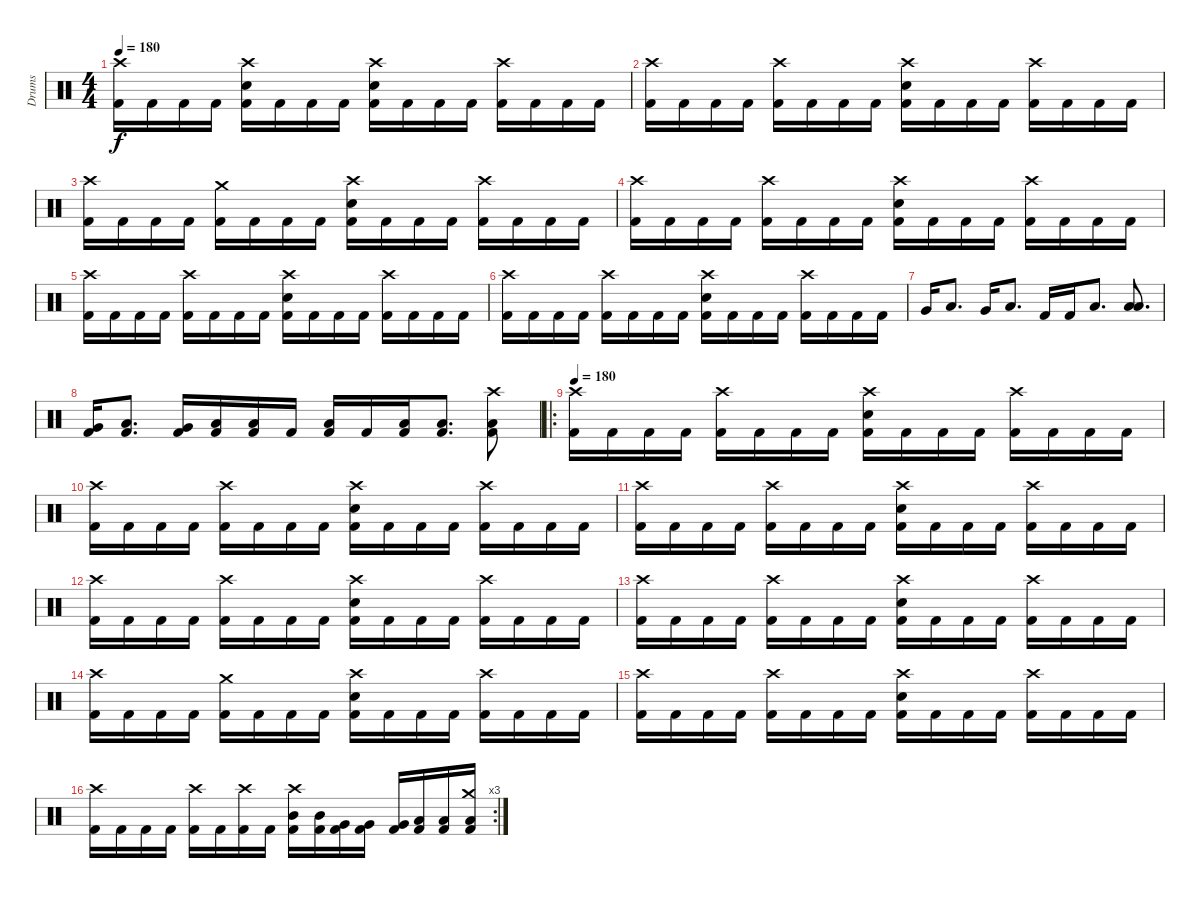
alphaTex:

\track ("Drums" "Drums") {instrument percussion}
\staff {score}
\articulation defaults
\ts (4 4)
\tempo 180
\clef neutral
\ks c
("Crash high (hit)" "Kick (hit) 2").16{dy f} "Kick (hit) 2".16 "Kick (hit) 2".16 "Kick (hit) 2".16 ("Crash high (hit)" "Snare (hit) 2" "Kick (hit) 2").16 "Kick (hit) 2".16 "Kick (hit) 2".16 "Kick (hit) 2".16 ("Crash high (hit)" "Snare (hit) 2" "Kick (hit) 2").16 "Kick (hit) 2".16 "Kick (hit) 2".16 "Kick (hit) 2".16 ("Crash high (hit)" "Kick (hit) 2").16 "Kick (hit) 2".16 "Kick (hit) 2".16 "Kick (hit) 2".16 |
("Crash high (hit)" "Kick (hit) 2").16 "Kick (hit) 2".16 "Kick (hit) 2".16 "Kick (hit) 2".16 ("Crash high (hit)" "Kick (hit) 2").16 "Kick (hit) 2".16 "Kick (hit) 2".16 "Kick (hit) 2".16 ("Crash high (hit)" "Snare (hit) 2" "Kick (hit) 2").16 "Kick (hit) 2".16 "Kick (hit) 2".16 "Kick (hit) 2".16 ("Crash high (hit)" "Kick (hit) 2").16 "Kick (hit) 2".16 "Kick (hit) 2".16 "Kick (hit) 2".16 |
("Crash high (hit)" "Kick (hit) 2").16 "Kick (hit) 2".16 "Kick (hit) 2".16 "Kick (hit) 2".16 ("Crash medium (hit)" "Kick (hit) 2").16 "Kick (hit) 2".16 "Kick (hit) 2".16 "Kick (hit) 2".16 ("Crash high (hit)" "Snare (hit) 2" "Kick (hit) 2").16 "Kick (hit) 2".16 "Kick (hit) 2".16 "Kick (hit) 2".16 ("Crash high (hit)" "Kick (hit) 2").16 "Kick (hit) 2".16 "Kick (hit) 2".16 "Kick (hit) 2".16 |
("Crash high (hit)" "Kick (hit) 2").16 "Kick (hit) 2".16 "Kick (hit) 2".16 "Kick (hit) 2".16 ("Crash high (hit)" "Kick (hit) 2").16 "Kick (hit) 2".16 "Kick (hit) 2".16 "Kick (hit) 2".16 ("Crash high (hit)" "Snare (hit) 2" "Kick (hit) 2").16 "Kick (hit) 2".16 "Kick (hit) 2".16 "Kick (hit) 2".16 ("Crash high (hit)" "Kick (hit) 2").16 "Kick (hit) 2".16 "Kick (hit) 2".16 "Kick (hit) 2".16 |
("Crash high (hit)" "Kick (hit) 2").16 "Kick (hit) 2".16 "Kick (hit) 2".16 "Kick (hit) 2".16 ("Crash high (hit)" "Kick (hit) 2").16 "Kick (hit) 2".16 "Kick (hit) 2".16 "Kick (hit) 2".16 ("Crash high (hit)" "Snare (hit) 2" "Kick (hit) 2").16 "Kick (hit) 2".16 "Kick (hit) 2".16 "Kick (hit) 2".16 ("Crash high (hit)" "Kick (hit) 2").16 "Kick (hit) 2".16 "Kick (hit) 2".16 "Kick (hit) 2".16 |
("Crash high (hit)" "Kick (hit) 2").16 "Kick (hit) 2".16 "Kick (hit) 2".16 "Kick (hit) 2".16 ("Crash high (hit)" "Kick (hit) 2").16 "Kick (hit) 2".16 "Kick (hit) 2".16 "Kick (hit) 2".16 ("Crash high (hit)" "Snare (hit) 2" "Kick (hit) 2").16 "Kick (hit) 2".16 "Kick (hit) 2".16 "Kick (hit) 2".16 ("Crash high (hit)" "Kick (hit) 2").16 "Kick (hit) 2".16 "Kick (hit) 2".16 "Kick (hit) 2".16 |
"Very Low Tom (hit)".16 "Low Tom (hit)".8{d} "Very Low Tom (hit)".16 "Low Tom (hit)".8{d} "Kick (hit) 2".16 "Kick (hit) 2".16 "Low Floor Tom (hit)".8{d} ("Low Tom (hit)" "Low Floor Tom (hit)").8{d} |
("Very Low Tom (hit)" "Kick (hit) 2").16 ("Low Tom (hit)" "Kick (hit) 2").8{d} ("Very Low Tom (hit)" "Kick (hit) 2").16 ("Low Tom (hit)" "Kick (hit) 2").16 ("Low Floor Tom (hit)" "Kick (hit) 2").16 "Kick (hit) 2".16 ("Low Floor Tom (hit)" "Kick (hit) 2").16 "Kick (hit) 2".16 ("Low Floor Tom (hit)" "Kick (hit) 2").16 ("Low Tom (hit)" "Kick (hit) 2").8{d} ("Crash high (hit)" "Low Floor Tom (hit)" "Kick (hit) 2").8 |
\ro
\tempo 180
("Crash high (hit)" "Kick (hit) 2").16 "Kick (hit) 2".16 "Kick (hit) 2".16 "Kick (hit) 2".16 ("Crash high (hit)" "Kick (hit) 2").16 "Kick (hit) 2".16 "Kick (hit) 2".16 "Kick (hit) 2".16 ("Crash high (hit)" "Snare (hit) 2" "Kick (hit) 2").16 "Kick (hit) 2".16 "Kick (hit) 2".16 "Kick (hit) 2".16 ("Crash high (hit)" "Kick (hit) 2").16 "Kick (hit) 2".16 "Kick (hit) 2".16 "Kick (hit) 2".16 |
("Crash high (hit)" "Kick (hit) 2").16 "Kick (hit) 2".16 "Kick (hit) 2".16 "Kick (hit) 2".16 ("Crash high (hit)" "Kick (hit) 2").16 "Kick (hit) 2".16 "Kick (hit) 2".16 "Kick (hit) 2".16 ("Crash high (hit)" "Snare (hit) 2" "Kick (hit) 2").16 "Kick (hit) 2".16 "Kick (hit) 2".16 "Kick (hit) 2".16 ("Crash high (hit)" "Kick (hit) 2").16 "Kick (hit) 2".16 "Kick (hit) 2".16 "Kick (hit) 2".16 |
("Crash high (hit)" "Kick (hit) 2").16 "Kick (hit) 2".16 "Kick (hit) 2".16 "Kick (hit) 2".16 ("Crash high (hit)" "Kick (hit) 2").16 "Kick (hit) 2".16 "Kick (hit) 2".16 "Kick (hit) 2".16 ("Crash high (hit)" "Snare (hit) 2" "Kick (hit) 2").16 "Kick (hit) 2".16 "Kick (hit) 2".16 "Kick (hit) 2".16 ("Crash high (hit)" "Kick (hit) 2").16 "Kick (hit) 2".16 "Kick (hit) 2".16 "Kick (hit) 2".16 |
("Crash high (hit)" "Kick (hit) 2").16 "Kick (hit) 2".16 "Kick (hit) 2".16 "Kick (hit) 2".16 ("Crash high (hit)" "Kick (hit) 2").16 "Kick (hit) 2".16 "Kick (hit) 2".16 "Kick (hit) 2".16 ("Crash high (hit)" "Snare (hit) 2" "Kick (hit) 2").16 "Kick (hit) 2".16 "Kick (hit) 2".16 "Kick (hit) 2".16 ("Crash high (hit)" "Kick (hit) 2").16 "Kick (hit) 2".16 "Kick (hit) 2".16 "Kick (hit) 2".16 |
("Crash high (hit)" "Kick (hit) 2").16 "Kick (hit) 2".16 "Kick (hit) 2".16 "Kick (hit) 2".16 ("Crash high (hit)" "Kick (hit) 2").16 "Kick (hit) 2".16 "Kick (hit) 2".16 "Kick (hit) 2".16 ("Crash high (hit)" "Snare (hit) 2" "Kick (hit) 2").16 "Kick (hit) 2".16 "Kick (hit) 2".16 "Kick (hit) 2".16 ("Crash high (hit)" "Kick (hit) 2").16 "Kick (hit) 2".16 "Kick (hit) 2".16 "Kick (hit) 2".16 |
("Crash high (hit)" "Kick (hit) 2").16 "Kick (hit) 2".16 "Kick (hit) 2".16 "Kick (hit) 2".16 ("Crash medium (hit)" "Kick (hit) 2").16 "Kick (hit) 2".16 "Kick (hit) 2".16 "Kick (hit) 2".16 ("Crash high (hit)" "Snare (hit) 2" "Kick (hit) 2").16 "Kick (hit) 2".16 "Kick (hit) 2".16 "Kick (hit) 2".16 ("Crash high (hit)" "Kick (hit) 2").16 "Kick (hit) 2".16 "Kick (hit) 2".16 "Kick (hit) 2".16 |
("Crash high (hit)" "Kick (hit) 2").16 "Kick (hit) 2".16 "Kick (hit) 2".16 "Kick (hit) 2".16 ("Crash high (hit)" "Kick (hit) 2").16 "Kick (hit) 2".16 "Kick (hit) 2".16 "Kick (hit) 2".16 ("Crash high (hit)" "Snare (hit) 2" "Kick (hit) 2").16 "Kick (hit) 2".16 "Kick (hit) 2".16 "Kick (hit) 2".16 ("Crash high (hit)" "Kick (hit) 2").16 "Kick (hit) 2".16 "Kick (hit) 2".16 "Kick (hit) 2".16 |
\rc 3
("Crash high (hit)" "Kick (hit) 2").16 "Kick (hit) 2".16 "Kick (hit) 2".16 "Kick (hit) 2".16 ("Crash high (hit)" "Kick (hit) 2").16 "Kick (hit) 2".16 ("Crash high (hit)" "Kick (hit) 2").16 "Kick (hit) 2".16 ("Crash high (hit)" "Mid Tom (hit)" "Kick (hit) 2").16 ("Mid Tom (hit)" "Kick (hit) 2").16 ("Very Low Tom (hit)" "Kick (hit) 2").16 ("Very Low Tom (hit)" "Kick (hit) 2").16 ("Very Low Tom (hit)" "Kick (hit) 2").16 ("Low Floor Tom (hit)" "Kick (hit) 2").16 ("Low Floor Tom (hit)" "Kick (hit) 2").16 ("Crash medium (hit)" "Low Floor Tom (hit)" "Kick (hit) 2").16
